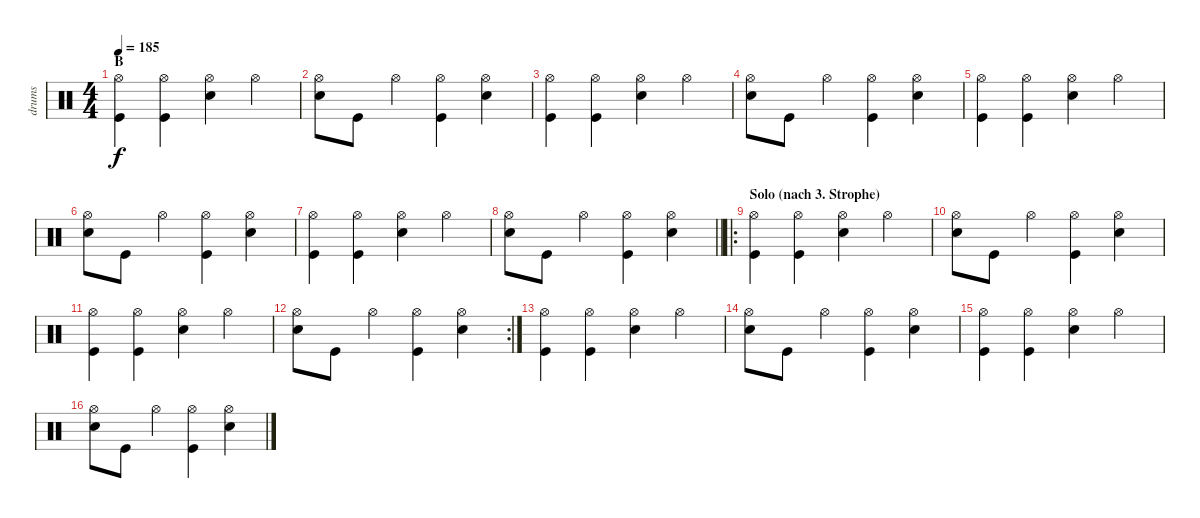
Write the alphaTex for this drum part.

\track ("drums" "drums") {instrument percussion}
\staff {score}
\articulation defaults
\ts (4 4)
\section ("" "B")
\tempo 185
\clef neutral
\ks c
("Hi-Hat (open)" "Kick (hit)").4{dy f} ("Hi-Hat (open)" "Kick (hit)").4 ("Hi-Hat (open)" "Snare (hit) 2").4 "Hi-Hat (open)".4 |
("Hi-Hat (open)" "Snare (hit) 2").8 "Kick (hit)".8 "Hi-Hat (open)".4 ("Hi-Hat (open)" "Kick (hit)").4 ("Hi-Hat (open)" "Snare (hit) 2").4 |
("Hi-Hat (open)" "Kick (hit)").4 ("Hi-Hat (open)" "Kick (hit)").4 ("Hi-Hat (open)" "Snare (hit) 2").4 "Hi-Hat (open)".4 |
("Hi-Hat (open)" "Snare (hit) 2").8 "Kick (hit)".8 "Hi-Hat (open)".4 ("Hi-Hat (open)" "Kick (hit)").4 ("Hi-Hat (open)" "Snare (hit) 2").4 |
("Hi-Hat (open)" "Kick (hit)").4 ("Hi-Hat (open)" "Kick (hit)").4 ("Hi-Hat (open)" "Snare (hit) 2").4 "Hi-Hat (open)".4 |
("Hi-Hat (open)" "Snare (hit) 2").8 "Kick (hit)".8 "Hi-Hat (open)".4 ("Hi-Hat (open)" "Kick (hit)").4 ("Hi-Hat (open)" "Snare (hit) 2").4 |
("Hi-Hat (open)" "Kick (hit)").4 ("Hi-Hat (open)" "Kick (hit)").4 ("Hi-Hat (open)" "Snare (hit) 2").4 "Hi-Hat (open)".4 |
\barLineRight lightlight
("Hi-Hat (open)" "Snare (hit) 2").8 "Kick (hit)".8 "Hi-Hat (open)".4 ("Hi-Hat (open)" "Kick (hit)").4 ("Hi-Hat (open)" "Snare (hit) 2").4 |
\ro
\section ("" "Solo (nach 3. Strophe)")
("Hi-Hat (open)" "Kick (hit)").4 ("Hi-Hat (open)" "Kick (hit)").4 ("Hi-Hat (open)" "Snare (hit) 2").4 "Hi-Hat (open)".4 |
("Hi-Hat (open)" "Snare (hit) 2").8 "Kick (hit)".8 "Hi-Hat (open)".4 ("Hi-Hat (open)" "Kick (hit)").4 ("Hi-Hat (open)" "Snare (hit) 2").4 |
("Hi-Hat (open)" "Kick (hit)").4 ("Hi-Hat (open)" "Kick (hit)").4 ("Hi-Hat (open)" "Snare (hit) 2").4 "Hi-Hat (open)".4 |
\rc 2
("Hi-Hat (open)" "Snare (hit) 2").8 "Kick (hit)".8 "Hi-Hat (open)".4 ("Hi-Hat (open)" "Kick (hit)").4 ("Hi-Hat (open)" "Snare (hit) 2").4 |
("Hi-Hat (open)" "Kick (hit)").4 ("Hi-Hat (open)" "Kick (hit)").4 ("Hi-Hat (open)" "Snare (hit) 2").4 "Hi-Hat (open)".4 |
("Hi-Hat (open)" "Snare (hit) 2").8 "Kick (hit)".8 "Hi-Hat (open)".4 ("Hi-Hat (open)" "Kick (hit)").4 ("Hi-Hat (open)" "Snare (hit) 2").4 |
("Hi-Hat (open)" "Kick (hit)").4 ("Hi-Hat (open)" "Kick (hit)").4 ("Hi-Hat (open)" "Snare (hit) 2").4 "Hi-Hat (open)".4 |
("Hi-Hat (open)" "Snare (hit) 2").8 "Kick (hit)".8 "Hi-Hat (open)".4 ("Hi-Hat (open)" "Kick (hit)").4 ("Hi-Hat (open)" "Snare (hit) 2").4
